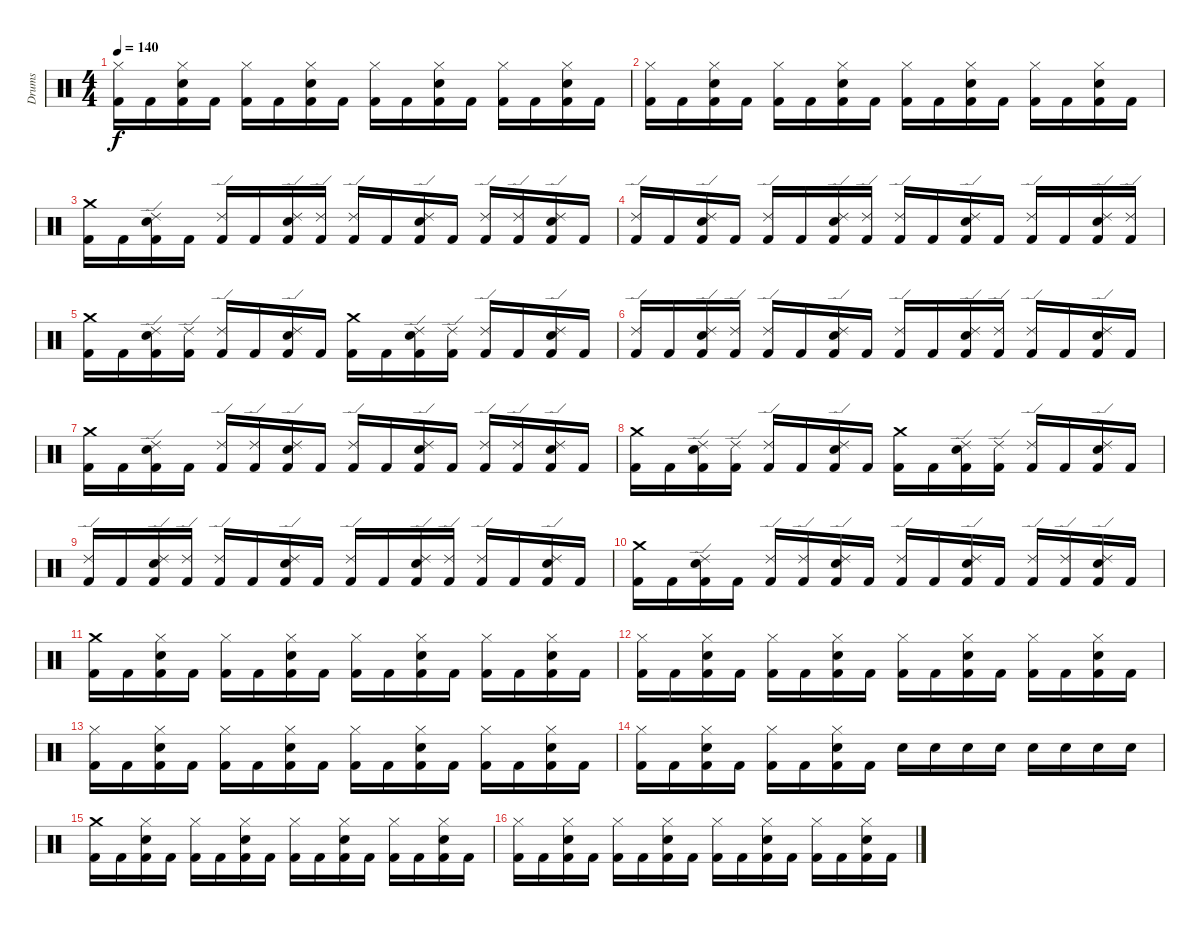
\track ("Drums" "Drums") {instrument percussion}
\staff {score}
\articulation defaults
\ts (4 4)
\tempo 140
\clef neutral
\ks c
("Hi-Hat (closed)" "Kick (hit) 2").16{dy f} "Kick (hit) 2".16 ("Hi-Hat (closed)" "Electric Snare (hit)" "Kick (hit) 2").16 "Kick (hit) 2".16 ("Hi-Hat (closed)" "Kick (hit) 2").16 "Kick (hit) 2".16 ("Hi-Hat (closed)" "Electric Snare (hit)" "Kick (hit) 2").16 "Kick (hit) 2".16 ("Hi-Hat (closed)" "Kick (hit) 2").16 "Kick (hit) 2".16 ("Hi-Hat (closed)" "Electric Snare (hit)" "Kick (hit) 2").16 "Kick (hit) 2".16 ("Hi-Hat (closed)" "Kick (hit) 2").16 "Kick (hit) 2".16 ("Hi-Hat (closed)" "Electric Snare (hit)" "Kick (hit) 2").16 "Kick (hit) 2".16 |
("Hi-Hat (closed)" "Kick (hit) 2").16 "Kick (hit) 2".16 ("Hi-Hat (closed)" "Electric Snare (hit)" "Kick (hit) 2").16 "Kick (hit) 2".16 ("Hi-Hat (closed)" "Kick (hit) 2").16 "Kick (hit) 2".16 ("Hi-Hat (closed)" "Electric Snare (hit)" "Kick (hit) 2").16 "Kick (hit) 2".16 ("Hi-Hat (closed)" "Kick (hit) 2").16 "Kick (hit) 2".16 ("Hi-Hat (closed)" "Electric Snare (hit)" "Kick (hit) 2").16 "Kick (hit) 2".16 ("Hi-Hat (closed)" "Kick (hit) 2").16 "Kick (hit) 2".16 ("Hi-Hat (closed)" "Electric Snare (hit)" "Kick (hit) 2").16 "Kick (hit) 2".16 |
("Crash medium (hit)" "Kick (hit) 2").16 "Kick (hit) 2".16 ("Ride (edge) 2" "Electric Snare (hit)" "Kick (hit) 2").16 "Kick (hit) 2".16 ("Ride (edge) 2" "Kick (hit) 2").16 "Kick (hit) 2".16 ("Ride (edge) 2" "Electric Snare (hit)" "Kick (hit) 2").16 ("Ride (edge) 2" "Kick (hit) 2").16 ("Ride (edge) 2" "Kick (hit) 2").16 "Kick (hit) 2".16 ("Ride (edge) 2" "Electric Snare (hit)" "Kick (hit) 2").16 "Kick (hit) 2".16 ("Ride (edge) 2" "Kick (hit) 2").16 ("Ride (edge) 2" "Kick (hit) 2").16 ("Ride (edge) 2" "Electric Snare (hit)" "Kick (hit) 2").16 "Kick (hit) 2".16 |
("Ride (edge) 2" "Kick (hit) 2").16 "Kick (hit) 2".16 ("Ride (edge) 2" "Electric Snare (hit)" "Kick (hit) 2").16 "Kick (hit) 2".16 ("Ride (edge) 2" "Kick (hit) 2").16 "Kick (hit) 2".16 ("Ride (edge) 2" "Electric Snare (hit)" "Kick (hit) 2").16 ("Ride (edge) 2" "Kick (hit) 2").16 ("Ride (edge) 2" "Kick (hit) 2").16 "Kick (hit) 2".16 ("Ride (edge) 2" "Electric Snare (hit)" "Kick (hit) 2").16 "Kick (hit) 2".16 ("Ride (edge) 2" "Kick (hit) 2").16 "Kick (hit) 2".16 ("Ride (edge) 2" "Electric Snare (hit)" "Kick (hit) 2").16 ("Ride (edge) 2" "Kick (hit) 2").16 |
("Crash medium (hit)" "Kick (hit) 2").16 "Kick (hit) 2".16 ("Ride (edge) 2" "Electric Snare (hit)" "Kick (hit) 2").16 ("Ride (edge) 2" "Kick (hit) 2").16 ("Ride (edge) 2" "Kick (hit) 2").16 "Kick (hit) 2".16 ("Ride (edge) 2" "Electric Snare (hit)" "Kick (hit) 2").16 "Kick (hit) 2".16 ("Crash medium (hit)" "Kick (hit) 2").16 "Kick (hit) 2".16 ("Ride (edge) 2" "Electric Snare (hit)" "Kick (hit) 2").16 ("Ride (edge) 2" "Kick (hit) 2").16 ("Ride (edge) 2" "Kick (hit) 2").16 "Kick (hit) 2".16 ("Ride (edge) 2" "Electric Snare (hit)" "Kick (hit) 2").16 "Kick (hit) 2".16 |
("Ride (edge) 2" "Kick (hit) 2").16 "Kick (hit) 2".16 ("Ride (edge) 2" "Electric Snare (hit)" "Kick (hit) 2").16 ("Ride (edge) 2" "Kick (hit) 2").16 ("Ride (edge) 2" "Kick (hit) 2").16 "Kick (hit) 2".16 ("Ride (edge) 2" "Electric Snare (hit)" "Kick (hit) 2").16 "Kick (hit) 2".16 ("Ride (edge) 2" "Kick (hit) 2").16 "Kick (hit) 2".16 ("Ride (edge) 2" "Electric Snare (hit)" "Kick (hit) 2").16 ("Ride (edge) 2" "Kick (hit) 2").16 ("Ride (edge) 2" "Kick (hit) 2").16 "Kick (hit) 2".16 ("Ride (edge) 2" "Electric Snare (hit)" "Kick (hit) 2").16 "Kick (hit) 2".16 |
("Crash medium (hit)" "Kick (hit) 2").16 "Kick (hit) 2".16 ("Ride (edge) 2" "Electric Snare (hit)" "Kick (hit) 2").16 "Kick (hit) 2".16 ("Ride (edge) 2" "Kick (hit) 2").16 ("Ride (edge) 2" "Kick (hit) 2").16 ("Ride (edge) 2" "Electric Snare (hit)" "Kick (hit) 2").16 "Kick (hit) 2".16 ("Ride (edge) 2" "Kick (hit) 2").16 "Kick (hit) 2".16 ("Ride (edge) 2" "Electric Snare (hit)" "Kick (hit) 2").16 "Kick (hit) 2".16 ("Ride (edge) 2" "Kick (hit) 2").16 ("Ride (edge) 2" "Kick (hit) 2").16 ("Ride (edge) 2" "Electric Snare (hit)" "Kick (hit) 2").16 "Kick (hit) 2".16 |
("Crash medium (hit)" "Kick (hit) 2").16 "Kick (hit) 2".16 ("Ride (edge) 2" "Electric Snare (hit)" "Kick (hit) 2").16 ("Ride (edge) 2" "Kick (hit) 2").16 ("Ride (edge) 2" "Kick (hit) 2").16 "Kick (hit) 2".16 ("Ride (edge) 2" "Electric Snare (hit)" "Kick (hit) 2").16 "Kick (hit) 2".16 ("Crash medium (hit)" "Kick (hit) 2").16 "Kick (hit) 2".16 ("Ride (edge) 2" "Electric Snare (hit)" "Kick (hit) 2").16 ("Ride (edge) 2" "Kick (hit) 2").16 ("Ride (edge) 2" "Kick (hit) 2").16 "Kick (hit) 2".16 ("Ride (edge) 2" "Electric Snare (hit)" "Kick (hit) 2").16 "Kick (hit) 2".16 |
("Ride (edge) 2" "Kick (hit) 2").16 "Kick (hit) 2".16 ("Ride (edge) 2" "Electric Snare (hit)" "Kick (hit) 2").16 ("Ride (edge) 2" "Kick (hit) 2").16 ("Ride (edge) 2" "Kick (hit) 2").16 "Kick (hit) 2".16 ("Ride (edge) 2" "Electric Snare (hit)" "Kick (hit) 2").16 "Kick (hit) 2".16 ("Ride (edge) 2" "Kick (hit) 2").16 "Kick (hit) 2".16 ("Ride (edge) 2" "Electric Snare (hit)" "Kick (hit) 2").16 ("Ride (edge) 2" "Kick (hit) 2").16 ("Ride (edge) 2" "Kick (hit) 2").16 "Kick (hit) 2".16 ("Ride (edge) 2" "Electric Snare (hit)" "Kick (hit) 2").16 "Kick (hit) 2".16 |
("Crash medium (hit)" "Kick (hit) 2").16 "Kick (hit) 2".16 ("Ride (edge) 2" "Electric Snare (hit)" "Kick (hit) 2").16 "Kick (hit) 2".16 ("Ride (edge) 2" "Kick (hit) 2").16 ("Ride (edge) 2" "Kick (hit) 2").16 ("Ride (edge) 2" "Electric Snare (hit)" "Kick (hit) 2").16 "Kick (hit) 2".16 ("Ride (edge) 2" "Kick (hit) 2").16 "Kick (hit) 2".16 ("Ride (edge) 2" "Electric Snare (hit)" "Kick (hit) 2").16 "Kick (hit) 2".16 ("Ride (edge) 2" "Kick (hit) 2").16 ("Ride (edge) 2" "Kick (hit) 2").16 ("Ride (edge) 2" "Electric Snare (hit)" "Kick (hit) 2").16 "Kick (hit) 2".16 |
("Crash medium (hit)" "Kick (hit) 2").16 "Kick (hit) 2".16 ("Hi-Hat (closed)" "Electric Snare (hit)" "Kick (hit) 2").16 "Kick (hit) 2".16 ("Hi-Hat (closed)" "Kick (hit) 2").16 "Kick (hit) 2".16 ("Hi-Hat (closed)" "Electric Snare (hit)" "Kick (hit) 2").16 "Kick (hit) 2".16 ("Hi-Hat (closed)" "Kick (hit) 2").16 "Kick (hit) 2".16 ("Hi-Hat (closed)" "Electric Snare (hit)" "Kick (hit) 2").16 "Kick (hit) 2".16 ("Hi-Hat (closed)" "Kick (hit) 2").16 "Kick (hit) 2".16 ("Hi-Hat (closed)" "Electric Snare (hit)" "Kick (hit) 2").16 "Kick (hit) 2".16 |
("Hi-Hat (closed)" "Kick (hit) 2").16 "Kick (hit) 2".16 ("Hi-Hat (closed)" "Electric Snare (hit)" "Kick (hit) 2").16 "Kick (hit) 2".16 ("Hi-Hat (closed)" "Kick (hit) 2").16 "Kick (hit) 2".16 ("Hi-Hat (closed)" "Electric Snare (hit)" "Kick (hit) 2").16 "Kick (hit) 2".16 ("Hi-Hat (closed)" "Kick (hit) 2").16 "Kick (hit) 2".16 ("Hi-Hat (closed)" "Electric Snare (hit)" "Kick (hit) 2").16 "Kick (hit) 2".16 ("Hi-Hat (closed)" "Kick (hit) 2").16 "Kick (hit) 2".16 ("Hi-Hat (closed)" "Electric Snare (hit)" "Kick (hit) 2").16 "Kick (hit) 2".16 |
("Hi-Hat (closed)" "Kick (hit) 2").16 "Kick (hit) 2".16 ("Hi-Hat (closed)" "Electric Snare (hit)" "Kick (hit) 2").16 "Kick (hit) 2".16 ("Hi-Hat (closed)" "Kick (hit) 2").16 "Kick (hit) 2".16 ("Hi-Hat (closed)" "Electric Snare (hit)" "Kick (hit) 2").16 "Kick (hit) 2".16 ("Hi-Hat (closed)" "Kick (hit) 2").16 "Kick (hit) 2".16 ("Hi-Hat (closed)" "Electric Snare (hit)" "Kick (hit) 2").16 "Kick (hit) 2".16 ("Hi-Hat (closed)" "Kick (hit) 2").16 "Kick (hit) 2".16 ("Hi-Hat (closed)" "Electric Snare (hit)" "Kick (hit) 2").16 "Kick (hit) 2".16 |
("Hi-Hat (closed)" "Kick (hit) 2").16 "Kick (hit) 2".16 ("Hi-Hat (closed)" "Electric Snare (hit)" "Kick (hit) 2").16 "Kick (hit) 2".16 ("Hi-Hat (closed)" "Kick (hit) 2").16 "Kick (hit) 2".16 ("Hi-Hat (closed)" "Electric Snare (hit)" "Kick (hit) 2").16 "Kick (hit) 2".16 "Electric Snare (hit)".16 "Electric Snare (hit)".16 "Electric Snare (hit)".16 "Electric Snare (hit)".16 "Electric Snare (hit)".16 "Electric Snare (hit)".16 "Electric Snare (hit)".16 "Electric Snare (hit)".16 |
("Crash medium (hit)" "Kick (hit) 2").16 "Kick (hit) 2".16 ("Hi-Hat (closed)" "Electric Snare (hit)" "Kick (hit) 2").16 "Kick (hit) 2".16 ("Hi-Hat (closed)" "Kick (hit) 2").16 "Kick (hit) 2".16 ("Hi-Hat (closed)" "Electric Snare (hit)" "Kick (hit) 2").16 "Kick (hit) 2".16 ("Hi-Hat (closed)" "Kick (hit) 2").16 "Kick (hit) 2".16 ("Hi-Hat (closed)" "Electric Snare (hit)" "Kick (hit) 2").16 "Kick (hit) 2".16 ("Hi-Hat (closed)" "Kick (hit) 2").16 "Kick (hit) 2".16 ("Hi-Hat (closed)" "Electric Snare (hit)" "Kick (hit) 2").16 "Kick (hit) 2".16 |
("Hi-Hat (closed)" "Kick (hit) 2").16 "Kick (hit) 2".16 ("Hi-Hat (closed)" "Electric Snare (hit)" "Kick (hit) 2").16 "Kick (hit) 2".16 ("Hi-Hat (closed)" "Kick (hit) 2").16 "Kick (hit) 2".16 ("Hi-Hat (closed)" "Electric Snare (hit)" "Kick (hit) 2").16 "Kick (hit) 2".16 ("Hi-Hat (closed)" "Kick (hit) 2").16 "Kick (hit) 2".16 ("Hi-Hat (closed)" "Electric Snare (hit)" "Kick (hit) 2").16 "Kick (hit) 2".16 ("Hi-Hat (closed)" "Kick (hit) 2").16 "Kick (hit) 2".16 ("Hi-Hat (closed)" "Electric Snare (hit)" "Kick (hit) 2").16 "Kick (hit) 2".16
